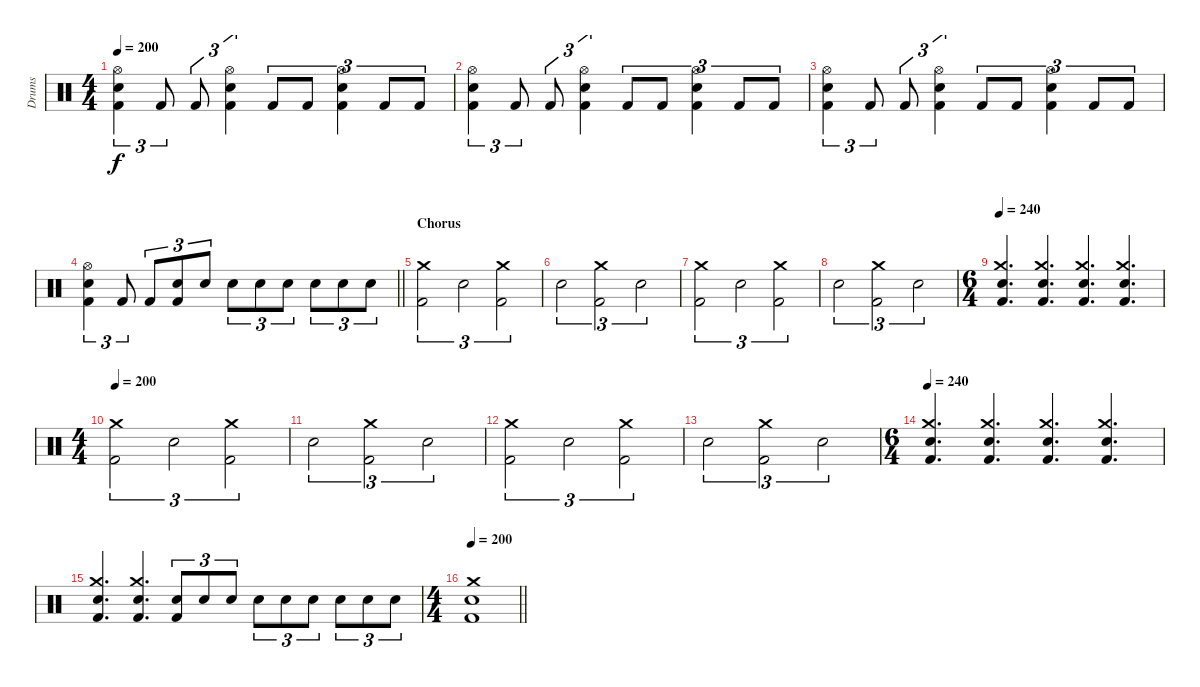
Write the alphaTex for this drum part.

\track ("Drums" "Drums") {instrument percussion}
\staff {score}
\articulation defaults
\ts (4 4)
\tempo 200
\clef neutral
\ks c
("Hi-Hat (open)" "Snare (hit) 2" "Kick (hit) 2").4{tu (3 2) dy f} "Kick (hit) 2".8{tu (3 2)} "Kick (hit) 2".8{tu (3 2)} ("Hi-Hat (open)" "Snare (hit) 2" "Kick (hit) 2").4{tu (3 2)} "Kick (hit) 2".8{tu (3 2)} "Kick (hit) 2".8{tu (3 2)} ("Hi-Hat (open)" "Snare (hit) 2" "Kick (hit) 2").4{tu (3 2)} "Kick (hit) 2".8{tu (3 2)} "Kick (hit) 2".8{tu (3 2)} |
("Hi-Hat (open)" "Snare (hit) 2" "Kick (hit) 2").4{tu (3 2)} "Kick (hit) 2".8{tu (3 2)} "Kick (hit) 2".8{tu (3 2)} ("Hi-Hat (open)" "Snare (hit) 2" "Kick (hit) 2").4{tu (3 2)} "Kick (hit) 2".8{tu (3 2)} "Kick (hit) 2".8{tu (3 2)} ("Hi-Hat (open)" "Snare (hit) 2" "Kick (hit) 2").4{tu (3 2)} "Kick (hit) 2".8{tu (3 2)} "Kick (hit) 2".8{tu (3 2)} |
("Hi-Hat (open)" "Snare (hit) 2" "Kick (hit) 2").4{tu (3 2)} "Kick (hit) 2".8{tu (3 2)} "Kick (hit) 2".8{tu (3 2)} ("Hi-Hat (open)" "Snare (hit) 2" "Kick (hit) 2").4{tu (3 2)} "Kick (hit) 2".8{tu (3 2)} "Kick (hit) 2".8{tu (3 2)} ("Hi-Hat (open)" "Snare (hit) 2" "Kick (hit) 2").4{tu (3 2)} "Kick (hit) 2".8{tu (3 2)} "Kick (hit) 2".8{tu (3 2)} |
\barLineRight lightlight
("Hi-Hat (open)" "Snare (hit) 2" "Kick (hit) 2").4{tu (3 2)} "Kick (hit) 2".8{tu (3 2)} "Kick (hit) 2".8{tu (3 2)} ("Snare (hit) 2" "Kick (hit) 2").8{tu (3 2)} "Snare (hit) 2".8{tu (3 2)} "Snare (hit) 2".8{tu (3 2)} "Snare (hit) 2".8{tu (3 2)} "Snare (hit) 2".8{tu (3 2)} "Snare (hit) 2".8{tu (3 2)} "Snare (hit) 2".8{tu (3 2)} "Snare (hit) 2".8{tu (3 2)} |
\section ("" "Chorus")
("Crash medium (hit)" "Kick (hit) 2").2{tu (3 2)} "Electric Snare (hit)".2{tu (3 2)} ("Crash medium (hit)" "Kick (hit) 2").2{tu (3 2)} |
"Electric Snare (hit)".2{tu (3 2)} ("Crash medium (hit)" "Kick (hit) 2").2{tu (3 2)} "Electric Snare (hit)".2{tu (3 2)} |
("Crash medium (hit)" "Kick (hit) 2").2{tu (3 2)} "Electric Snare (hit)".2{tu (3 2)} ("Crash medium (hit)" "Kick (hit) 2").2{tu (3 2)} |
"Electric Snare (hit)".2{tu (3 2)} ("Crash medium (hit)" "Kick (hit) 2").2{tu (3 2)} "Electric Snare (hit)".2{tu (3 2)} |
\ts (6 4)
\tempo 240
("Crash medium (hit)" "Electric Snare (hit)" "Kick (hit) 2").4{d} ("Crash medium (hit)" "Electric Snare (hit)" "Kick (hit) 2").4{d} ("Crash medium (hit)" "Electric Snare (hit)" "Kick (hit) 2").4{d} ("Crash medium (hit)" "Electric Snare (hit)" "Kick (hit) 2").4{d} |
\ts (4 4)
\tempo 200
("Crash medium (hit)" "Kick (hit) 2").2{tu (3 2)} "Electric Snare (hit)".2{tu (3 2)} ("Crash medium (hit)" "Kick (hit) 2").2{tu (3 2)} |
"Electric Snare (hit)".2{tu (3 2)} ("Crash medium (hit)" "Kick (hit) 2").2{tu (3 2)} "Electric Snare (hit)".2{tu (3 2)} |
("Crash medium (hit)" "Kick (hit) 2").2{tu (3 2)} "Electric Snare (hit)".2{tu (3 2)} ("Crash medium (hit)" "Kick (hit) 2").2{tu (3 2)} |
"Electric Snare (hit)".2{tu (3 2)} ("Crash medium (hit)" "Kick (hit) 2").2{tu (3 2)} "Electric Snare (hit)".2{tu (3 2)} |
\ts (6 4)
\tempo 240
("Crash medium (hit)" "Electric Snare (hit)" "Kick (hit) 2").4{d} ("Crash medium (hit)" "Electric Snare (hit)" "Kick (hit) 2").4{d} ("Crash medium (hit)" "Electric Snare (hit)" "Kick (hit) 2").4{d} ("Crash medium (hit)" "Electric Snare (hit)" "Kick (hit) 2").4{d} |
("Crash medium (hit)" "Electric Snare (hit)" "Kick (hit) 2").4{d} ("Crash medium (hit)" "Electric Snare (hit)" "Kick (hit) 2").4{d} ("Snare (hit) 2" "Kick (hit) 2").8{tu (3 2)} "Snare (hit) 2".8{tu (3 2)} "Snare (hit) 2".8{tu (3 2)} "Snare (hit) 2".8{tu (3 2)} "Snare (hit) 2".8{tu (3 2)} "Snare (hit) 2".8{tu (3 2)} "Snare (hit) 2".8{tu (3 2)} "Snare (hit) 2".8{tu (3 2)} "Snare (hit) 2".8{tu (3 2)} |
\ts (4 4)
\tempo 200
\barLineRight lightlight
("Crash medium (hit)" "Electric Snare (hit)" "Kick (hit) 2").1
